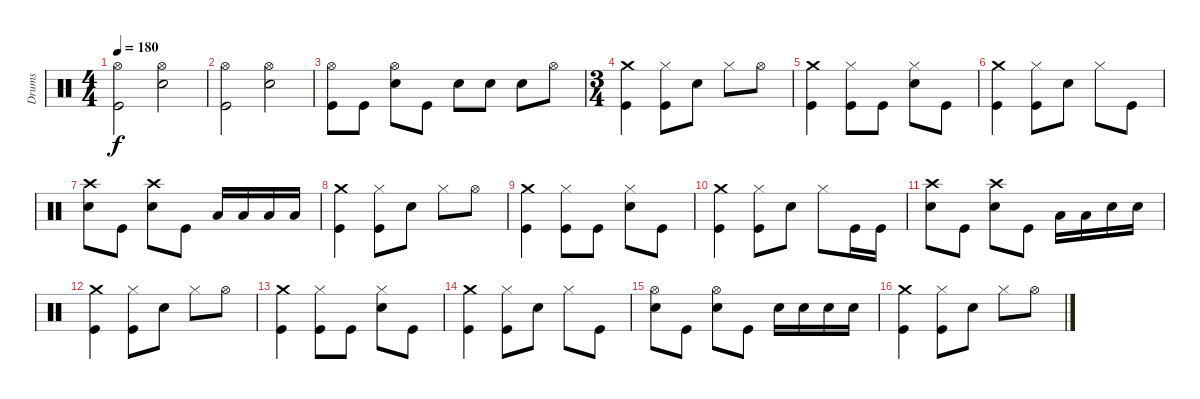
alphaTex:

\track ("Drums" "Drums") {instrument percussion}
\staff {score}
\articulation defaults
\ts (4 4)
\tempo 180
\clef neutral
\ks c
("Hi-Hat (open)" "Kick (hit)").2{dy f} ("Hi-Hat (open)" "Electric Snare (hit)").2 |
("Hi-Hat (open)" "Kick (hit)").2 ("Hi-Hat (open)" "Electric Snare (hit)").2 |
("Hi-Hat (open)" "Kick (hit)").8 "Kick (hit)".8 ("Hi-Hat (open)" "Electric Snare (hit)").8 "Kick (hit)".8 "Electric Snare (hit)".8 "Electric Snare (hit)".8 "Electric Snare (hit)".8 "Hi-Hat (open)".8 |
\ts (3 4)
("Crash medium (hit)" "Kick (hit)").4 ("Hi-Hat (closed)" "Kick (hit)").8 "Electric Snare (hit)".8 "Hi-Hat (closed)".8 "Hi-Hat (open)".8 |
("Crash medium (hit)" "Kick (hit)").4 ("Hi-Hat (closed)" "Kick (hit)").8 "Kick (hit)".8 ("Hi-Hat (closed)" "Electric Snare (hit)").8 "Kick (hit)".8 |
("Crash medium (hit)" "Kick (hit)").4 ("Hi-Hat (closed)" "Kick (hit)").8 "Electric Snare (hit)".8 "Hi-Hat (closed)".8 "Kick (hit)".8 |
("Crash high (hit)" "Electric Snare (hit)").8 "Kick (hit)".8 ("Crash high (hit)" "Electric Snare (hit)").8 "Kick (hit)".8 "Low Tom (hit)".16 "Low Tom (hit)".16 "Low Tom (hit)".16 "Low Tom (hit)".16 |
("Crash medium (hit)" "Kick (hit)").4 ("Hi-Hat (closed)" "Kick (hit)").8 "Electric Snare (hit)".8 "Hi-Hat (closed)".8 "Hi-Hat (open)".8 |
("Crash medium (hit)" "Kick (hit)").4 ("Hi-Hat (closed)" "Kick (hit)").8 "Kick (hit)".8 ("Hi-Hat (closed)" "Electric Snare (hit)").8 "Kick (hit)".8 |
("Crash medium (hit)" "Kick (hit)").4 ("Hi-Hat (closed)" "Kick (hit)").8 "Electric Snare (hit)".8 "Hi-Hat (closed)".8 "Kick (hit)".16 "Kick (hit)".16 |
("Crash high (hit)" "Electric Snare (hit)").8 "Kick (hit)".8 ("Crash high (hit)" "Electric Snare (hit)").8 "Kick (hit)".8 "Low Tom (hit)".16 "Low Tom (hit)".16 "Electric Snare (hit)".16 "Electric Snare (hit)".16 |
("Crash medium (hit)" "Kick (hit)").4 ("Hi-Hat (closed)" "Kick (hit)").8 "Electric Snare (hit)".8 "Hi-Hat (closed)".8 "Hi-Hat (open)".8 |
("Crash medium (hit)" "Kick (hit)").4 ("Hi-Hat (closed)" "Kick (hit)").8 "Kick (hit)".8 ("Hi-Hat (closed)" "Electric Snare (hit)").8 "Kick (hit)".8 |
("Crash medium (hit)" "Kick (hit)").4 ("Hi-Hat (closed)" "Kick (hit)").8 "Electric Snare (hit)".8 "Hi-Hat (closed)".8 "Kick (hit)".8 |
("Hi-Hat (open)" "Electric Snare (hit)").8 "Kick (hit)".8 ("Hi-Hat (open)" "Electric Snare (hit)").8 "Kick (hit)".8 "Electric Snare (hit)".16 "Electric Snare (hit)".16 "Electric Snare (hit)".16 "Electric Snare (hit)".16 |
("Crash medium (hit)" "Kick (hit)").4 ("Hi-Hat (closed)" "Kick (hit)").8 "Electric Snare (hit)".8 "Hi-Hat (closed)".8 "Hi-Hat (open)".8
